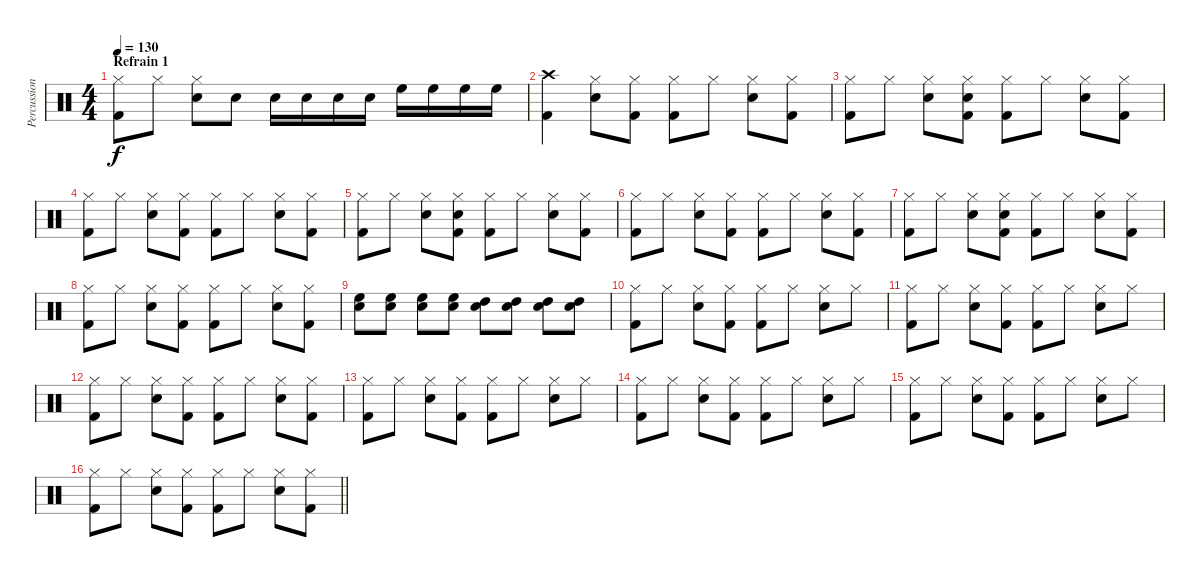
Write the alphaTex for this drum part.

\track ("Percussion" "Percussion") {instrument percussion}
\staff {score}
\articulation defaults
\ts (4 4)
\section ("" "Refrain 1")
\tempo 130
\clef neutral
\ks c
("Hi-Hat (closed)" "Kick (hit) 2").8{dy f} "Hi-Hat (closed)".8 ("Hi-Hat (closed)" "Snare (hit) 2").8 "Snare (hit) 2".8 "Snare (hit) 2".16 "Snare (hit) 2".16 "Snare (hit) 2".16 "Snare (hit) 2".16 "High Floor Tom (hit)".16 "High Floor Tom (hit)".16 "High Floor Tom (hit)".16 "High Floor Tom (hit)".16 |
("Crash high (hit)" "Kick (hit) 2").4 ("Hi-Hat (closed)" "Snare (hit) 2").8 ("Hi-Hat (closed)" "Kick (hit) 2").8 ("Hi-Hat (closed)" "Kick (hit) 2").8 "Hi-Hat (closed)".8 ("Hi-Hat (closed)" "Snare (hit) 2").8 ("Hi-Hat (closed)" "Kick (hit) 2").8 |
("Hi-Hat (closed)" "Kick (hit) 2").8 "Hi-Hat (closed)".8 ("Hi-Hat (closed)" "Snare (hit) 2").8 ("Hi-Hat (closed)" "Snare (hit) 2" "Kick (hit) 2").8 ("Hi-Hat (closed)" "Kick (hit) 2").8 "Hi-Hat (closed)".8 ("Hi-Hat (closed)" "Snare (hit) 2").8 ("Hi-Hat (closed)" "Kick (hit) 2").8 |
("Hi-Hat (closed)" "Kick (hit) 2").8 "Hi-Hat (closed)".8 ("Hi-Hat (closed)" "Snare (hit) 2").8 ("Hi-Hat (closed)" "Kick (hit) 2").8 ("Hi-Hat (closed)" "Kick (hit) 2").8 "Hi-Hat (closed)".8 ("Hi-Hat (closed)" "Snare (hit) 2").8 ("Hi-Hat (closed)" "Kick (hit) 2").8 |
("Hi-Hat (closed)" "Kick (hit) 2").8 "Hi-Hat (closed)".8 ("Hi-Hat (closed)" "Snare (hit) 2").8 ("Hi-Hat (closed)" "Snare (hit) 2" "Kick (hit) 2").8 ("Hi-Hat (closed)" "Kick (hit) 2").8 "Hi-Hat (closed)".8 ("Hi-Hat (closed)" "Snare (hit) 2").8 ("Hi-Hat (closed)" "Kick (hit) 2").8 |
("Hi-Hat (closed)" "Kick (hit) 2").8 "Hi-Hat (closed)".8 ("Hi-Hat (closed)" "Snare (hit) 2").8 ("Hi-Hat (closed)" "Kick (hit) 2").8 ("Hi-Hat (closed)" "Kick (hit) 2").8 "Hi-Hat (closed)".8 ("Hi-Hat (closed)" "Snare (hit) 2").8 ("Hi-Hat (closed)" "Kick (hit) 2").8 |
("Hi-Hat (closed)" "Kick (hit) 2").8 "Hi-Hat (closed)".8 ("Hi-Hat (closed)" "Snare (hit) 2").8 ("Hi-Hat (closed)" "Snare (hit) 2" "Kick (hit) 2").8 ("Hi-Hat (closed)" "Kick (hit) 2").8 "Hi-Hat (closed)".8 ("Hi-Hat (closed)" "Snare (hit) 2").8 ("Hi-Hat (closed)" "Kick (hit) 2").8 |
("Hi-Hat (closed)" "Kick (hit) 2").8 "Hi-Hat (closed)".8 ("Hi-Hat (closed)" "Snare (hit) 2").8 ("Hi-Hat (closed)" "Kick (hit) 2").8 ("Hi-Hat (closed)" "Kick (hit) 2").8 "Hi-Hat (closed)".8 ("Hi-Hat (closed)" "Snare (hit) 2").8 ("Hi-Hat (closed)" "Kick (hit) 2").8 |
("Snare (hit) 2" "High Floor Tom (hit)").8 ("Snare (hit) 2" "High Floor Tom (hit)").8 ("Snare (hit) 2" "High Floor Tom (hit)").8 ("Snare (hit) 2" "High Floor Tom (hit)").8 ("Snare (hit) 2" "High Tom (hit)").8 ("Snare (hit) 2" "High Tom (hit)").8 ("Snare (hit) 2" "High Tom (hit)").8 ("Snare (hit) 2" "High Tom (hit)").8 |
("Hi-Hat (closed)" "Kick (hit) 2").8 "Hi-Hat (closed)".8 ("Hi-Hat (closed)" "Snare (hit) 2").8 ("Hi-Hat (closed)" "Kick (hit) 2").8 ("Hi-Hat (closed)" "Kick (hit) 2").8 "Hi-Hat (closed)".8 ("Hi-Hat (closed)" "Snare (hit) 2").8 "Hi-Hat (closed)".8 |
("Hi-Hat (closed)" "Kick (hit) 2").8 "Hi-Hat (closed)".8 ("Hi-Hat (closed)" "Snare (hit) 2").8 ("Hi-Hat (closed)" "Kick (hit) 2").8 ("Hi-Hat (closed)" "Kick (hit) 2").8 "Hi-Hat (closed)".8 ("Hi-Hat (closed)" "Snare (hit) 2").8 "Hi-Hat (closed)".8 |
("Hi-Hat (closed)" "Kick (hit) 2").8 "Hi-Hat (closed)".8 ("Hi-Hat (closed)" "Snare (hit) 2").8 ("Hi-Hat (closed)" "Kick (hit) 2").8 ("Hi-Hat (closed)" "Kick (hit) 2").8 "Hi-Hat (closed)".8 ("Hi-Hat (closed)" "Snare (hit) 2").8 ("Hi-Hat (closed)" "Kick (hit) 2").8 |
("Hi-Hat (closed)" "Kick (hit) 2").8 "Hi-Hat (closed)".8 ("Hi-Hat (closed)" "Snare (hit) 2").8 ("Hi-Hat (closed)" "Kick (hit) 2").8 ("Hi-Hat (closed)" "Kick (hit) 2").8 "Hi-Hat (closed)".8 ("Hi-Hat (closed)" "Snare (hit) 2").8 "Hi-Hat (closed)".8 |
("Hi-Hat (closed)" "Kick (hit) 2").8 "Hi-Hat (closed)".8 ("Hi-Hat (closed)" "Snare (hit) 2").8 ("Hi-Hat (closed)" "Kick (hit) 2").8 ("Hi-Hat (closed)" "Kick (hit) 2").8 "Hi-Hat (closed)".8 ("Hi-Hat (closed)" "Snare (hit) 2").8 "Hi-Hat (closed)".8 |
("Hi-Hat (closed)" "Kick (hit) 2").8 "Hi-Hat (closed)".8 ("Hi-Hat (closed)" "Snare (hit) 2").8 ("Hi-Hat (closed)" "Kick (hit) 2").8 ("Hi-Hat (closed)" "Kick (hit) 2").8 "Hi-Hat (closed)".8 ("Hi-Hat (closed)" "Snare (hit) 2").8 "Hi-Hat (closed)".8 |
\barLineRight lightlight
("Hi-Hat (closed)" "Kick (hit) 2").8 "Hi-Hat (closed)".8 ("Hi-Hat (closed)" "Snare (hit) 2").8 ("Hi-Hat (closed)" "Kick (hit) 2").8 ("Hi-Hat (closed)" "Kick (hit) 2").8 "Hi-Hat (closed)".8 ("Hi-Hat (closed)" "Snare (hit) 2").8 ("Hi-Hat (closed)" "Kick (hit) 2").8
